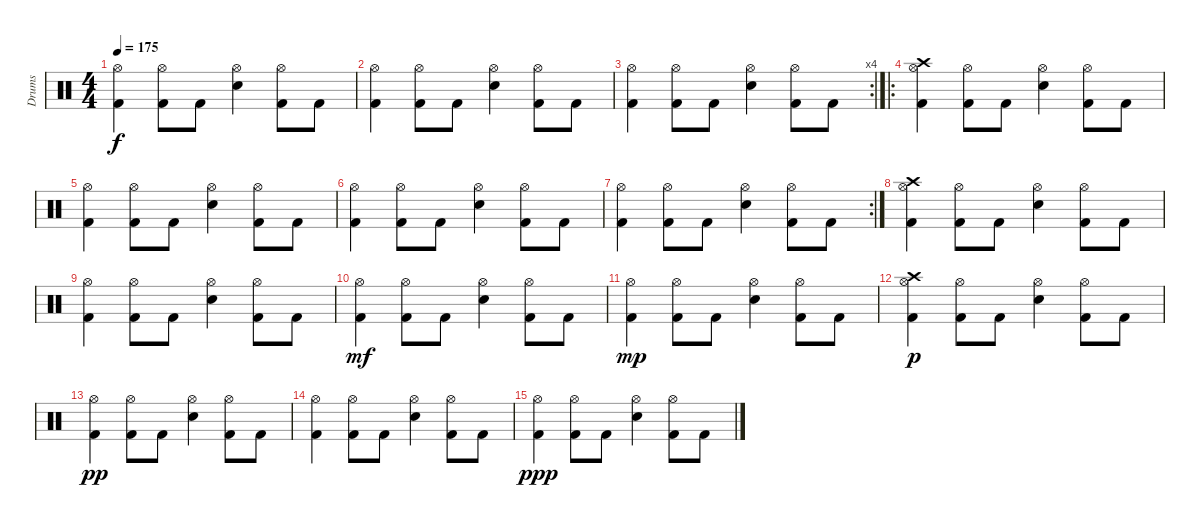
\track ("Drums" "Drums") {instrument percussion}
\staff {score}
\articulation defaults
\ts (4 4)
\tempo 175
\clef neutral
\ks c
("Kick (hit) 2" "Hi-Hat (open)").4{dy f} ("Kick (hit) 2" "Hi-Hat (open)").8 "Kick (hit) 2".8 ("Hi-Hat (open)" "Snare (hit) 2").4 ("Kick (hit) 2" "Hi-Hat (open)").8 "Kick (hit) 2".8 |
("Kick (hit) 2" "Hi-Hat (open)").4 ("Kick (hit) 2" "Hi-Hat (open)").8 "Kick (hit) 2".8 ("Hi-Hat (open)" "Snare (hit) 2").4 ("Kick (hit) 2" "Hi-Hat (open)").8 "Kick (hit) 2".8 |
\rc 4
("Kick (hit) 2" "Hi-Hat (open)").4 ("Kick (hit) 2" "Hi-Hat (open)").8 "Kick (hit) 2".8 ("Hi-Hat (open)" "Snare (hit) 2").4 ("Kick (hit) 2" "Hi-Hat (open)").8 "Kick (hit) 2".8 |
\ro
("Kick (hit) 2" "Crash high (hit)" "Hi-Hat (open)").4 ("Kick (hit) 2" "Hi-Hat (open)").8 "Kick (hit) 2".8 ("Hi-Hat (open)" "Snare (hit) 2").4 ("Kick (hit) 2" "Hi-Hat (open)").8 "Kick (hit) 2".8 |
("Kick (hit) 2" "Hi-Hat (open)").4 ("Kick (hit) 2" "Hi-Hat (open)").8 "Kick (hit) 2".8 ("Hi-Hat (open)" "Snare (hit) 2").4 ("Kick (hit) 2" "Hi-Hat (open)").8 "Kick (hit) 2".8 |
("Kick (hit) 2" "Hi-Hat (open)").4 ("Kick (hit) 2" "Hi-Hat (open)").8 "Kick (hit) 2".8 ("Hi-Hat (open)" "Snare (hit) 2").4 ("Kick (hit) 2" "Hi-Hat (open)").8 "Kick (hit) 2".8 |
\rc 2
("Kick (hit) 2" "Hi-Hat (open)").4 ("Kick (hit) 2" "Hi-Hat (open)").8 "Kick (hit) 2".8 ("Hi-Hat (open)" "Snare (hit) 2").4 ("Kick (hit) 2" "Hi-Hat (open)").8 "Kick (hit) 2".8 |
("Kick (hit) 2" "Crash high (hit)" "Hi-Hat (open)").4 ("Kick (hit) 2" "Hi-Hat (open)").8 "Kick (hit) 2".8 ("Hi-Hat (open)" "Snare (hit) 2").4 ("Kick (hit) 2" "Hi-Hat (open)").8 "Kick (hit) 2".8 |
("Kick (hit) 2" "Hi-Hat (open)").4 ("Kick (hit) 2" "Hi-Hat (open)").8 "Kick (hit) 2".8 ("Hi-Hat (open)" "Snare (hit) 2").4 ("Kick (hit) 2" "Hi-Hat (open)").8 "Kick (hit) 2".8 |
("Kick (hit) 2" "Hi-Hat (open)").4{dy mf} ("Kick (hit) 2" "Hi-Hat (open)").8 "Kick (hit) 2".8 ("Hi-Hat (open)" "Snare (hit) 2").4 ("Kick (hit) 2" "Hi-Hat (open)").8 "Kick (hit) 2".8 |
("Kick (hit) 2" "Hi-Hat (open)").4{dy mp} ("Kick (hit) 2" "Hi-Hat (open)").8 "Kick (hit) 2".8 ("Hi-Hat (open)" "Snare (hit) 2").4 ("Kick (hit) 2" "Hi-Hat (open)").8 "Kick (hit) 2".8 |
("Kick (hit) 2" "Crash high (hit)" "Hi-Hat (open)").4{dy p} ("Kick (hit) 2" "Hi-Hat (open)").8 "Kick (hit) 2".8 ("Hi-Hat (open)" "Snare (hit) 2").4 ("Kick (hit) 2" "Hi-Hat (open)").8 "Kick (hit) 2".8 |
("Kick (hit) 2" "Hi-Hat (open)").4{dy pp} ("Kick (hit) 2" "Hi-Hat (open)").8 "Kick (hit) 2".8 ("Hi-Hat (open)" "Snare (hit) 2").4 ("Kick (hit) 2" "Hi-Hat (open)").8 "Kick (hit) 2".8 |
("Kick (hit) 2" "Hi-Hat (open)").4 ("Kick (hit) 2" "Hi-Hat (open)").8 "Kick (hit) 2".8 ("Hi-Hat (open)" "Snare (hit) 2").4 ("Kick (hit) 2" "Hi-Hat (open)").8 "Kick (hit) 2".8 |
("Kick (hit) 2" "Hi-Hat (open)").4{dy ppp} ("Kick (hit) 2" "Hi-Hat (open)").8 "Kick (hit) 2".8 ("Hi-Hat (open)" "Snare (hit) 2").4 ("Kick (hit) 2" "Hi-Hat (open)").8 "Kick (hit) 2".8
